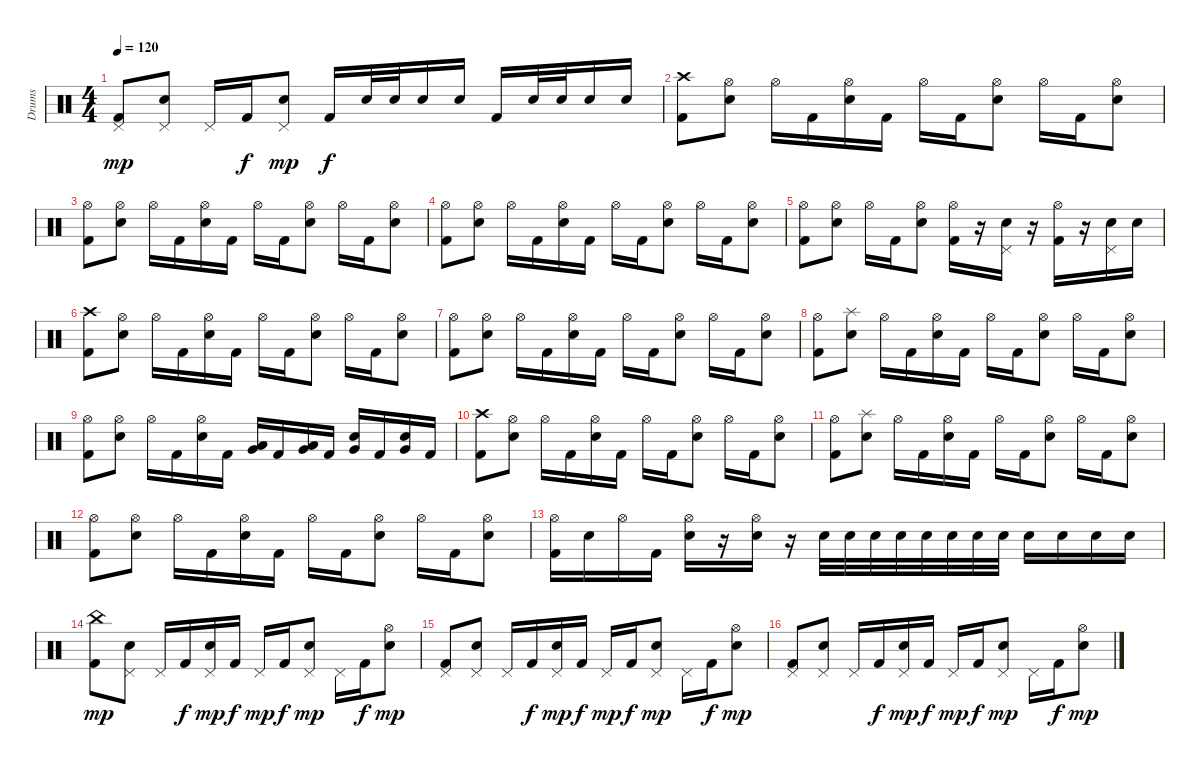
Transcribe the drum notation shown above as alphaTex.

\track ("Drums" "Drums") {instrument percussion}
\staff {score}
\articulation defaults
\ts (4 4)
\tempo 120
\clef neutral
\ks c
("Pedal Hi-Hat (hit)" "Kick (hit) 2").8{dy mp} ("Pedal Hi-Hat (hit)" "Electric Snare (hit)").8 "Pedal Hi-Hat (hit)".16 "Kick (hit) 2".16{dy f} ("Pedal Hi-Hat (hit)" "Electric Snare (hit)").8{dy mp} "Kick (hit) 2".16{dy f} "Electric Snare (hit)".32 "Electric Snare (hit)".32 "Electric Snare (hit)".16 "Electric Snare (hit)".16 "Kick (hit) 2".16 "Electric Snare (hit)".32 "Electric Snare (hit)".32 "Electric Snare (hit)".16 "Electric Snare (hit)".16 |
("Crash high (hit)" "Kick (hit) 2").8 ("Hi-Hat (open)" "Electric Snare (hit)").8 "Hi-Hat (open)".16 "Kick (hit) 2".16 ("Hi-Hat (open)" "Electric Snare (hit)").16 "Kick (hit) 2".16 "Hi-Hat (open)".16 "Kick (hit) 2".16 ("Hi-Hat (open)" "Electric Snare (hit)").8 "Hi-Hat (open)".16 "Kick (hit) 2".16 ("Hi-Hat (open)" "Electric Snare (hit)").8 |
("Hi-Hat (open)" "Kick (hit) 2").8 ("Hi-Hat (open)" "Electric Snare (hit)").8 "Hi-Hat (open)".16 "Kick (hit) 2".16 ("Hi-Hat (open)" "Electric Snare (hit)").16 "Kick (hit) 2".16 "Hi-Hat (open)".16 "Kick (hit) 2".16 ("Hi-Hat (open)" "Electric Snare (hit)").8 "Hi-Hat (open)".16 "Kick (hit) 2".16 ("Hi-Hat (open)" "Electric Snare (hit)").8 |
("Hi-Hat (open)" "Kick (hit) 2").8 ("Hi-Hat (open)" "Electric Snare (hit)").8 "Hi-Hat (open)".16 "Kick (hit) 2".16 ("Hi-Hat (open)" "Electric Snare (hit)").16 "Kick (hit) 2".16 "Hi-Hat (open)".16 "Kick (hit) 2".16 ("Hi-Hat (open)" "Electric Snare (hit)").8 "Hi-Hat (open)".16 "Kick (hit) 2".16 ("Hi-Hat (open)" "Electric Snare (hit)").8 |
("Hi-Hat (open)" "Kick (hit) 2").8 ("Hi-Hat (open)" "Electric Snare (hit)").8 "Hi-Hat (open)".16 "Kick (hit) 2".16 ("Hi-Hat (open)" "Electric Snare (hit)").8 ("Hi-Hat (open)" "Kick (hit) 2").16 r.16 ("Pedal Hi-Hat (hit)" "Electric Snare (hit)").16 r.16 ("Hi-Hat (open)" "Kick (hit) 2").16 r.16 ("Pedal Hi-Hat (hit)" "Electric Snare (hit)").16 "Electric Snare (hit)".16 |
("Crash high (hit)" "Kick (hit) 2").8 ("Hi-Hat (open)" "Electric Snare (hit)").8 "Hi-Hat (open)".16 "Kick (hit) 2".16 ("Hi-Hat (open)" "Electric Snare (hit)").16 "Kick (hit) 2".16 "Hi-Hat (open)".16 "Kick (hit) 2".16 ("Hi-Hat (open)" "Electric Snare (hit)").8 "Hi-Hat (open)".16 "Kick (hit) 2".16 ("Hi-Hat (open)" "Electric Snare (hit)").8 |
("Hi-Hat (open)" "Kick (hit) 2").8 ("Hi-Hat (open)" "Electric Snare (hit)").8 "Hi-Hat (open)".16 "Kick (hit) 2".16 ("Hi-Hat (open)" "Electric Snare (hit)").16 "Kick (hit) 2".16 "Hi-Hat (open)".16 "Kick (hit) 2".16 ("Hi-Hat (open)" "Electric Snare (hit)").8 "Hi-Hat (open)".16 "Kick (hit) 2".16 ("Hi-Hat (open)" "Electric Snare (hit)").8 |
("Hi-Hat (open)" "Kick (hit) 2").8 ("Splash (hit)" "Electric Snare (hit)").8 "Hi-Hat (open)".16 "Kick (hit) 2".16 ("Hi-Hat (open)" "Electric Snare (hit)").16 "Kick (hit) 2".16 "Hi-Hat (open)".16 "Kick (hit) 2".16 ("Hi-Hat (open)" "Electric Snare (hit)").8 "Hi-Hat (open)".16 "Kick (hit) 2".16 ("Hi-Hat (open)" "Electric Snare (hit)").8 |
("Hi-Hat (open)" "Kick (hit) 2").8 ("Hi-Hat (open)" "Electric Snare (hit)").8 "Hi-Hat (open)".16 "Kick (hit) 2".16 ("Hi-Hat (open)" "Electric Snare (hit)").16 "Kick (hit) 2".16 ("Low Floor Tom (hit)" "Very Low Tom (hit)").16 "Kick (hit) 2".16 ("Low Floor Tom (hit)" "Very Low Tom (hit)").16 "Kick (hit) 2".16 ("Electric Snare (hit)" "Very Low Tom (hit)").16 "Kick (hit) 2".16 ("Electric Snare (hit)" "Very Low Tom (hit)").16 "Kick (hit) 2".16 |
("Crash high (hit)" "Kick (hit) 2").8 ("Hi-Hat (open)" "Electric Snare (hit)").8 "Hi-Hat (open)".16 "Kick (hit) 2".16 ("Hi-Hat (open)" "Electric Snare (hit)").16 "Kick (hit) 2".16 "Hi-Hat (open)".16 "Kick (hit) 2".16 ("Hi-Hat (open)" "Electric Snare (hit)").8 "Hi-Hat (open)".16 "Kick (hit) 2".16 ("Hi-Hat (open)" "Electric Snare (hit)").8 |
("Hi-Hat (open)" "Kick (hit) 2").8 ("Splash (hit)" "Electric Snare (hit)").8 "Hi-Hat (open)".16 "Kick (hit) 2".16 ("Hi-Hat (open)" "Electric Snare (hit)").16 "Kick (hit) 2".16 "Hi-Hat (open)".16 "Kick (hit) 2".16 ("Hi-Hat (open)" "Electric Snare (hit)").8 "Hi-Hat (open)".16 "Kick (hit) 2".16 ("Hi-Hat (open)" "Electric Snare (hit)").8 |
("Hi-Hat (open)" "Kick (hit) 2").8 ("Hi-Hat (open)" "Electric Snare (hit)").8 "Hi-Hat (open)".16 "Kick (hit) 2".16 ("Hi-Hat (open)" "Electric Snare (hit)").16 "Kick (hit) 2".16 "Hi-Hat (open)".16 "Kick (hit) 2".16 ("Hi-Hat (open)" "Electric Snare (hit)").8 "Hi-Hat (open)".16 "Kick (hit) 2".16 ("Hi-Hat (open)" "Electric Snare (hit)").8 |
("Hi-Hat (open)" "Kick (hit) 2").16 "Electric Snare (hit)".16 "Hi-Hat (open)".16 "Kick (hit) 2".16 ("Hi-Hat (open)" "Electric Snare (hit)").16 r.16 ("Hi-Hat (open)" "Electric Snare (hit)").16 r.16 "Electric Snare (hit)".32 "Electric Snare (hit)".32 "Electric Snare (hit)".32 "Electric Snare (hit)".32 "Electric Snare (hit)".32 "Electric Snare (hit)".32 "Electric Snare (hit)".32 "Electric Snare (hit)".32 "Electric Snare (hit)".16 "Electric Snare (hit)".16 "Electric Snare (hit)".16 "Electric Snare (hit)".16 |
("China (hit)" "Kick (hit) 2").8{dy mp} ("Pedal Hi-Hat (hit)" "Electric Snare (hit)").8 "Pedal Hi-Hat (hit)".16 "Kick (hit) 2".16{dy f} ("Pedal Hi-Hat (hit)" "Electric Snare (hit)").16{dy mp} "Kick (hit) 2".16{dy f} "Pedal Hi-Hat (hit)".16{dy mp} "Kick (hit) 2".16{dy f} ("Pedal Hi-Hat (hit)" "Electric Snare (hit)").8{dy mp} "Pedal Hi-Hat (hit)".16 "Kick (hit) 2".16{dy f} ("Hi-Hat (open)" "Electric Snare (hit)").8{dy mp} |
("Pedal Hi-Hat (hit)" "Kick (hit) 2").8 ("Pedal Hi-Hat (hit)" "Electric Snare (hit)").8 "Pedal Hi-Hat (hit)".16 "Kick (hit) 2".16{dy f} ("Pedal Hi-Hat (hit)" "Electric Snare (hit)").16{dy mp} "Kick (hit) 2".16{dy f} "Pedal Hi-Hat (hit)".16{dy mp} "Kick (hit) 2".16{dy f} ("Pedal Hi-Hat (hit)" "Electric Snare (hit)").8{dy mp} "Pedal Hi-Hat (hit)".16 "Kick (hit) 2".16{dy f} ("Hi-Hat (open)" "Electric Snare (hit)").8{dy mp} |
("Pedal Hi-Hat (hit)" "Kick (hit) 2").8 ("Pedal Hi-Hat (hit)" "Electric Snare (hit)").8 "Pedal Hi-Hat (hit)".16 "Kick (hit) 2".16{dy f} ("Pedal Hi-Hat (hit)" "Electric Snare (hit)").16{dy mp} "Kick (hit) 2".16{dy f} "Pedal Hi-Hat (hit)".16{dy mp} "Kick (hit) 2".16{dy f} ("Pedal Hi-Hat (hit)" "Electric Snare (hit)").8{dy mp} "Pedal Hi-Hat (hit)".16 "Kick (hit) 2".16{dy f} ("Hi-Hat (open)" "Electric Snare (hit)").8{dy mp}
